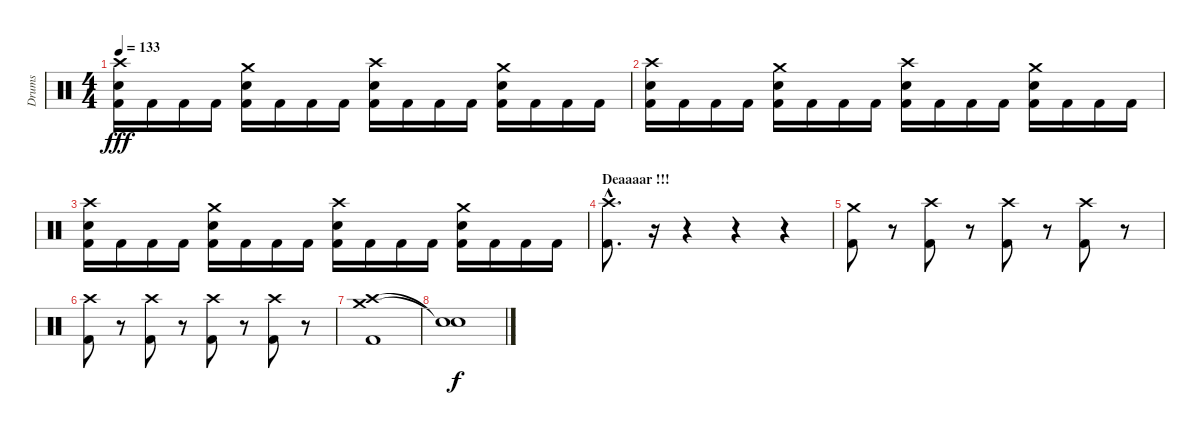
\track ("Drums" "Drums") {instrument percussion}
\staff {score}
\articulation defaults
\ts (4 4)
\tempo 133
\clef neutral
\ks c
("Crash high (hit)" "Snare (hit) 2" "Kick (hit) 2").16{dy fff} "Kick (hit) 2".16 "Kick (hit) 2".16 "Kick (hit) 2".16 ("Crash medium (hit)" "Snare (hit) 2" "Kick (hit) 2").16 "Kick (hit) 2".16 "Kick (hit) 2".16 "Kick (hit) 2".16 ("Crash high (hit)" "Snare (hit) 2" "Kick (hit) 2").16 "Kick (hit) 2".16 "Kick (hit) 2".16 "Kick (hit) 2".16 ("Crash medium (hit)" "Snare (hit) 2" "Kick (hit) 2").16 "Kick (hit) 2".16 "Kick (hit) 2".16 "Kick (hit) 2".16 |
("Crash high (hit)" "Snare (hit) 2" "Kick (hit) 2").16 "Kick (hit) 2".16 "Kick (hit) 2".16 "Kick (hit) 2".16 ("Crash medium (hit)" "Snare (hit) 2" "Kick (hit) 2").16 "Kick (hit) 2".16 "Kick (hit) 2".16 "Kick (hit) 2".16 ("Crash high (hit)" "Snare (hit) 2" "Kick (hit) 2").16 "Kick (hit) 2".16 "Kick (hit) 2".16 "Kick (hit) 2".16 ("Crash medium (hit)" "Snare (hit) 2" "Kick (hit) 2").16 "Kick (hit) 2".16 "Kick (hit) 2".16 "Kick (hit) 2".16 |
("Crash high (hit)" "Snare (hit) 2" "Kick (hit) 2").16 "Kick (hit) 2".16 "Kick (hit) 2".16 "Kick (hit) 2".16 ("Crash medium (hit)" "Snare (hit) 2" "Kick (hit) 2").16 "Kick (hit) 2".16 "Kick (hit) 2".16 "Kick (hit) 2".16 ("Crash high (hit)" "Snare (hit) 2" "Kick (hit) 2").16 "Kick (hit) 2".16 "Kick (hit) 2".16 "Kick (hit) 2".16 ("Crash medium (hit)" "Snare (hit) 2" "Kick (hit) 2").16 "Kick (hit) 2".16 "Kick (hit) 2".16 "Kick (hit) 2".16 |
\section ("" "Deaaaar !!!")
("Crash high (hit)"{hac} "Kick (hit) 2"{hac}).8{d} r.16{volume 0} r.4 r.4 r.4 |
("Crash medium (hit)" "Kick (hit) 2").8{volume 16} r.8{volume 0} ("Crash high (hit)" "Kick (hit) 2").8{volume 16} r.8{volume 0} ("Crash high (hit)" "Kick (hit) 2").8{volume 16} r.8{volume 0} ("Crash high (hit)" "Kick (hit) 2").8{volume 16} r.8{volume 0} |
("Crash high (hit)" "Kick (hit) 2").8{volume 16} r.8{volume 0} ("Crash high (hit)" "Kick (hit) 2").8{volume 16} r.8{volume 0} ("Crash high (hit)" "Kick (hit) 2").8{volume 16} r.8{volume 0} ("Crash high (hit)" "Kick (hit) 2").8{volume 16} r.8{volume 0} |
("Crash high (hit)" "Crash medium (hit)" "Kick (hit) 2").1{volume 16} |
("Snare (hit)"{t} "Snare (hit)"{t}).1{dy f}
